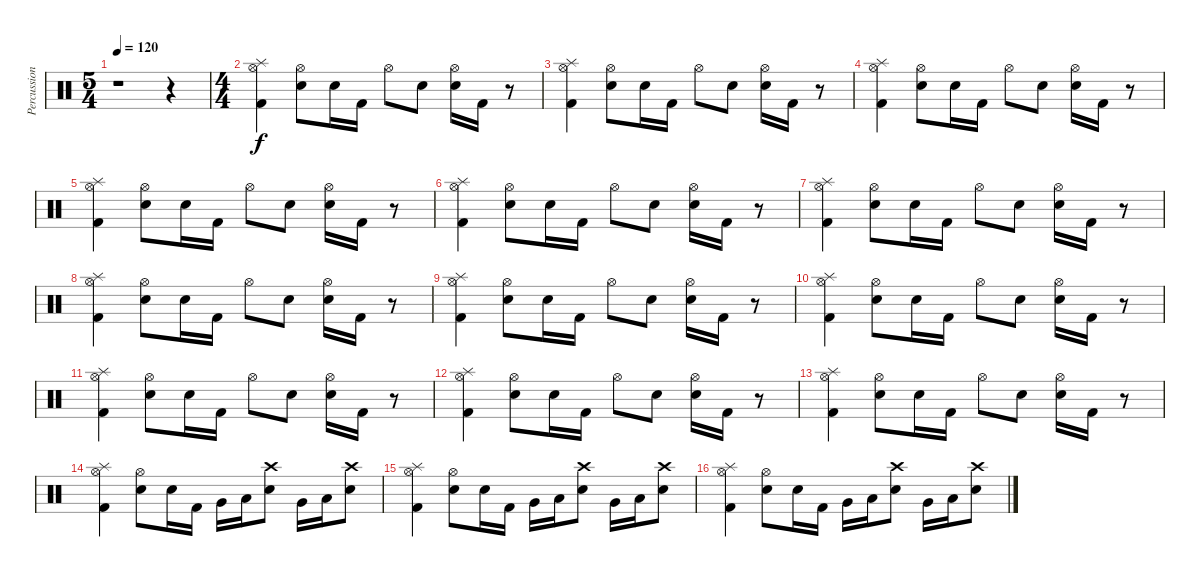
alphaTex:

\track ("Percussion" "Percussion") {instrument percussion}
\staff {score}
\articulation defaults
\ts (5 4)
\tempo 120
\clef neutral
\ks c
r.1{dy f} r.4 |
\ts (4 4)
("Splash (hit)" "Hi-Hat (open)" "Kick (hit) 2").4 ("Hi-Hat (open)" "Snare (hit) 2").8 "Snare (hit) 2".16 "Kick (hit) 2".16 "Hi-Hat (open)".8 "Snare (hit) 2".8 ("Hi-Hat (open)" "Snare (hit) 2").16 "Kick (hit) 2".16 r.8 |
("Splash (hit)" "Hi-Hat (open)" "Kick (hit) 2").4 ("Hi-Hat (open)" "Snare (hit) 2").8 "Snare (hit) 2".16 "Kick (hit) 2".16 "Hi-Hat (open)".8 "Snare (hit) 2".8 ("Hi-Hat (open)" "Snare (hit) 2").16 "Kick (hit) 2".16 r.8 |
("Splash (hit)" "Hi-Hat (open)" "Kick (hit) 2").4 ("Hi-Hat (open)" "Snare (hit) 2").8 "Snare (hit) 2".16 "Kick (hit) 2".16 "Hi-Hat (open)".8 "Snare (hit) 2".8 ("Hi-Hat (open)" "Snare (hit) 2").16 "Kick (hit) 2".16 r.8 |
("Splash (hit)" "Hi-Hat (open)" "Kick (hit) 2").4 ("Hi-Hat (open)" "Snare (hit) 2").8 "Snare (hit) 2".16 "Kick (hit) 2".16 "Hi-Hat (open)".8 "Snare (hit) 2".8 ("Hi-Hat (open)" "Snare (hit) 2").16 "Kick (hit) 2".16 r.8 |
("Splash (hit)" "Hi-Hat (open)" "Kick (hit) 2").4 ("Hi-Hat (open)" "Snare (hit) 2").8 "Snare (hit) 2".16 "Kick (hit) 2".16 "Hi-Hat (open)".8 "Snare (hit) 2".8 ("Hi-Hat (open)" "Snare (hit) 2").16 "Kick (hit) 2".16 r.8 |
("Splash (hit)" "Hi-Hat (open)" "Kick (hit) 2").4 ("Hi-Hat (open)" "Snare (hit) 2").8 "Snare (hit) 2".16 "Kick (hit) 2".16 "Hi-Hat (open)".8 "Snare (hit) 2".8 ("Hi-Hat (open)" "Snare (hit) 2").16 "Kick (hit) 2".16 r.8 |
("Splash (hit)" "Hi-Hat (open)" "Kick (hit) 2").4 ("Hi-Hat (open)" "Snare (hit) 2").8 "Snare (hit) 2".16 "Kick (hit) 2".16 "Hi-Hat (open)".8 "Snare (hit) 2".8 ("Hi-Hat (open)" "Snare (hit) 2").16 "Kick (hit) 2".16 r.8 |
("Splash (hit)" "Hi-Hat (open)" "Kick (hit) 2").4 ("Hi-Hat (open)" "Snare (hit) 2").8 "Snare (hit) 2".16 "Kick (hit) 2".16 "Hi-Hat (open)".8 "Snare (hit) 2".8 ("Hi-Hat (open)" "Snare (hit) 2").16 "Kick (hit) 2".16 r.8 |
("Splash (hit)" "Hi-Hat (open)" "Kick (hit) 2").4 ("Hi-Hat (open)" "Snare (hit) 2").8 "Snare (hit) 2".16 "Kick (hit) 2".16 "Hi-Hat (open)".8 "Snare (hit) 2".8 ("Hi-Hat (open)" "Snare (hit) 2").16 "Kick (hit) 2".16 r.8 |
("Splash (hit)" "Hi-Hat (open)" "Kick (hit) 2").4 ("Hi-Hat (open)" "Snare (hit) 2").8 "Snare (hit) 2".16 "Kick (hit) 2".16 "Hi-Hat (open)".8 "Snare (hit) 2".8 ("Hi-Hat (open)" "Snare (hit) 2").16 "Kick (hit) 2".16 r.8 |
("Splash (hit)" "Hi-Hat (open)" "Kick (hit) 2").4 ("Hi-Hat (open)" "Snare (hit) 2").8 "Snare (hit) 2".16 "Kick (hit) 2".16 "Hi-Hat (open)".8 "Snare (hit) 2".8 ("Hi-Hat (open)" "Snare (hit) 2").16 "Kick (hit) 2".16 r.8 |
("Splash (hit)" "Hi-Hat (open)" "Kick (hit) 2").4 ("Hi-Hat (open)" "Snare (hit) 2").8 "Snare (hit) 2".16 "Kick (hit) 2".16 "Hi-Hat (open)".8 "Snare (hit) 2".8 ("Hi-Hat (open)" "Snare (hit) 2").16 "Kick (hit) 2".16 r.8 |
("Splash (hit)" "Hi-Hat (open)" "Kick (hit) 2").4 ("Hi-Hat (open)" "Snare (hit) 2").8 "Snare (hit) 2".16 "Kick (hit) 2".16 "Very Low Tom (hit)".16 "Low Floor Tom (hit)".16 ("Crash high (hit)" "Snare (hit) 2").8 "Very Low Tom (hit)".16 "Low Floor Tom (hit)".16 ("Crash high (hit)" "Snare (hit) 2").8 |
("Splash (hit)" "Hi-Hat (open)" "Kick (hit) 2").4 ("Hi-Hat (open)" "Snare (hit) 2").8 "Snare (hit) 2".16 "Kick (hit) 2".16 "Very Low Tom (hit)".16 "Low Floor Tom (hit)".16 ("Crash high (hit)" "Snare (hit) 2").8 "Very Low Tom (hit)".16 "Low Floor Tom (hit)".16 ("Crash high (hit)" "Snare (hit) 2").8 |
("Splash (hit)" "Hi-Hat (open)" "Kick (hit) 2").4 ("Hi-Hat (open)" "Snare (hit) 2").8 "Snare (hit) 2".16 "Kick (hit) 2".16 "Very Low Tom (hit)".16 "Low Floor Tom (hit)".16 ("Crash high (hit)" "Snare (hit) 2").8 "Very Low Tom (hit)".16 "Low Floor Tom (hit)".16 ("Crash high (hit)" "Snare (hit) 2").8
